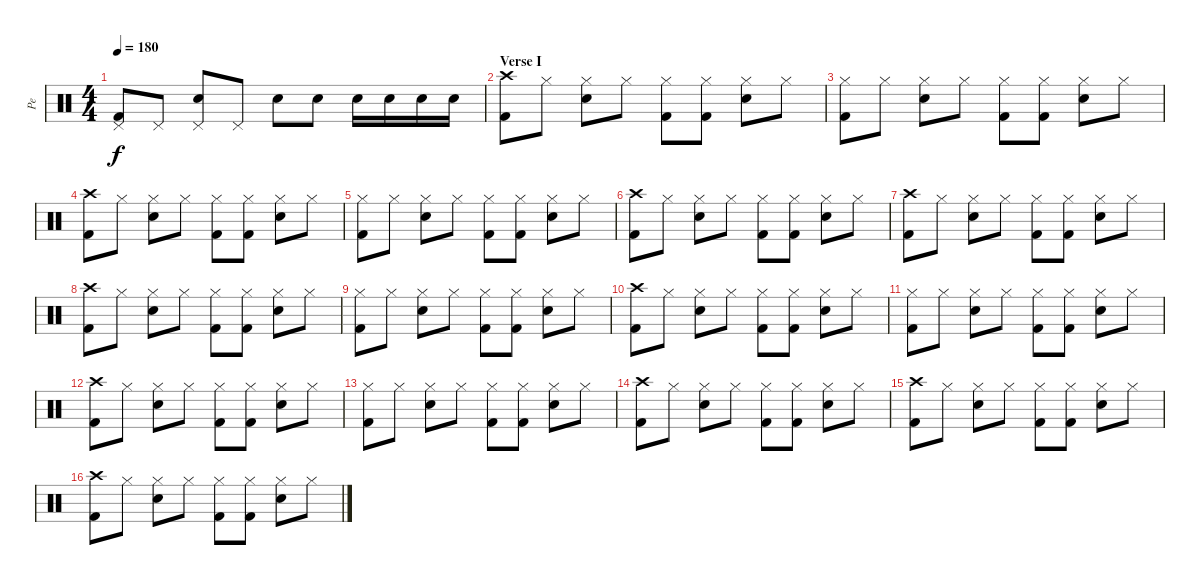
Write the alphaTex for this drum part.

\track ("Pe" "Pe") {instrument percussion}
\staff {score}
\articulation defaults
\ts (4 4)
\tempo 180
\clef neutral
\ks c
("Pedal Hi-Hat (hit)" "Kick (hit) 2").8{dy f} "Pedal Hi-Hat (hit)".8 ("Pedal Hi-Hat (hit)" "Electric Snare (hit)").8 "Pedal Hi-Hat (hit)".8 "Electric Snare (hit)".8 "Electric Snare (hit)".8 "Electric Snare (hit)".16 "Electric Snare (hit)".16 "Electric Snare (hit)".16 "Electric Snare (hit)".16 |
\section ("" "Verse I")
("Crash high (hit)" "Kick (hit) 2").8 "Hi-Hat (closed)".8 ("Hi-Hat (closed)" "Electric Snare (hit)").8 "Hi-Hat (closed)".8 ("Hi-Hat (closed)" "Kick (hit) 2").8 ("Hi-Hat (closed)" "Kick (hit) 2").8 ("Hi-Hat (closed)" "Electric Snare (hit)").8 "Hi-Hat (closed)".8 |
("Hi-Hat (closed)" "Kick (hit) 2").8 "Hi-Hat (closed)".8 ("Hi-Hat (closed)" "Electric Snare (hit)").8 "Hi-Hat (closed)".8 ("Hi-Hat (closed)" "Kick (hit) 2").8 ("Hi-Hat (closed)" "Kick (hit) 2").8 ("Hi-Hat (closed)" "Electric Snare (hit)").8 "Hi-Hat (closed)".8 |
("Crash high (hit)" "Kick (hit) 2").8 "Hi-Hat (closed)".8 ("Hi-Hat (closed)" "Electric Snare (hit)").8 "Hi-Hat (closed)".8 ("Hi-Hat (closed)" "Kick (hit) 2").8 ("Hi-Hat (closed)" "Kick (hit) 2").8 ("Hi-Hat (closed)" "Electric Snare (hit)").8 "Hi-Hat (closed)".8 |
("Hi-Hat (closed)" "Kick (hit) 2").8 "Hi-Hat (closed)".8 ("Hi-Hat (closed)" "Electric Snare (hit)").8 "Hi-Hat (closed)".8 ("Hi-Hat (closed)" "Kick (hit) 2").8 ("Hi-Hat (closed)" "Kick (hit) 2").8 ("Hi-Hat (closed)" "Electric Snare (hit)").8 "Hi-Hat (closed)".8 |
("Crash high (hit)" "Kick (hit) 2").8 "Hi-Hat (closed)".8 ("Hi-Hat (closed)" "Electric Snare (hit)").8 "Hi-Hat (closed)".8 ("Hi-Hat (closed)" "Kick (hit) 2").8 ("Hi-Hat (closed)" "Kick (hit) 2").8 ("Hi-Hat (closed)" "Electric Snare (hit)").8 "Hi-Hat (closed)".8 |
("Crash high (hit)" "Kick (hit) 2").8 "Hi-Hat (closed)".8 ("Hi-Hat (closed)" "Electric Snare (hit)").8 "Hi-Hat (closed)".8 ("Hi-Hat (closed)" "Kick (hit) 2").8 ("Hi-Hat (closed)" "Kick (hit) 2").8 ("Hi-Hat (closed)" "Electric Snare (hit)").8 "Hi-Hat (closed)".8 |
("Crash high (hit)" "Kick (hit) 2").8 "Hi-Hat (closed)".8 ("Hi-Hat (closed)" "Electric Snare (hit)").8 "Hi-Hat (closed)".8 ("Hi-Hat (closed)" "Kick (hit) 2").8 ("Hi-Hat (closed)" "Kick (hit) 2").8 ("Hi-Hat (closed)" "Electric Snare (hit)").8 "Hi-Hat (closed)".8 |
("Hi-Hat (closed)" "Kick (hit) 2").8 "Hi-Hat (closed)".8 ("Hi-Hat (closed)" "Electric Snare (hit)").8 "Hi-Hat (closed)".8 ("Hi-Hat (closed)" "Kick (hit) 2").8 ("Hi-Hat (closed)" "Kick (hit) 2").8 ("Hi-Hat (closed)" "Electric Snare (hit)").8 "Hi-Hat (closed)".8 |
("Crash high (hit)" "Kick (hit) 2").8 "Hi-Hat (closed)".8 ("Hi-Hat (closed)" "Electric Snare (hit)").8 "Hi-Hat (closed)".8 ("Hi-Hat (closed)" "Kick (hit) 2").8 ("Hi-Hat (closed)" "Kick (hit) 2").8 ("Hi-Hat (closed)" "Electric Snare (hit)").8 "Hi-Hat (closed)".8 |
("Hi-Hat (closed)" "Kick (hit) 2").8 "Hi-Hat (closed)".8 ("Hi-Hat (closed)" "Electric Snare (hit)").8 "Hi-Hat (closed)".8 ("Hi-Hat (closed)" "Kick (hit) 2").8 ("Hi-Hat (closed)" "Kick (hit) 2").8 ("Hi-Hat (closed)" "Electric Snare (hit)").8 "Hi-Hat (closed)".8 |
("Crash high (hit)" "Kick (hit) 2").8 "Hi-Hat (closed)".8 ("Hi-Hat (closed)" "Electric Snare (hit)").8 "Hi-Hat (closed)".8 ("Hi-Hat (closed)" "Kick (hit) 2").8 ("Hi-Hat (closed)" "Kick (hit) 2").8 ("Hi-Hat (closed)" "Electric Snare (hit)").8 "Hi-Hat (closed)".8 |
("Hi-Hat (closed)" "Kick (hit) 2").8 "Hi-Hat (closed)".8 ("Hi-Hat (closed)" "Electric Snare (hit)").8 "Hi-Hat (closed)".8 ("Hi-Hat (closed)" "Kick (hit) 2").8 ("Hi-Hat (closed)" "Kick (hit) 2").8 ("Hi-Hat (closed)" "Electric Snare (hit)").8 "Hi-Hat (closed)".8 |
("Crash high (hit)" "Kick (hit) 2").8 "Hi-Hat (closed)".8 ("Hi-Hat (closed)" "Electric Snare (hit)").8 "Hi-Hat (closed)".8 ("Hi-Hat (closed)" "Kick (hit) 2").8 ("Hi-Hat (closed)" "Kick (hit) 2").8 ("Hi-Hat (closed)" "Electric Snare (hit)").8 "Hi-Hat (closed)".8 |
("Crash high (hit)" "Kick (hit) 2").8 "Hi-Hat (closed)".8 ("Hi-Hat (closed)" "Electric Snare (hit)").8 "Hi-Hat (closed)".8 ("Hi-Hat (closed)" "Kick (hit) 2").8 ("Hi-Hat (closed)" "Kick (hit) 2").8 ("Hi-Hat (closed)" "Electric Snare (hit)").8 "Hi-Hat (closed)".8 |
("Crash high (hit)" "Kick (hit) 2").8 "Hi-Hat (closed)".8 ("Hi-Hat (closed)" "Electric Snare (hit)").8 "Hi-Hat (closed)".8 ("Hi-Hat (closed)" "Kick (hit) 2").8 ("Hi-Hat (closed)" "Kick (hit) 2").8 ("Hi-Hat (closed)" "Electric Snare (hit)").8 "Hi-Hat (closed)".8
